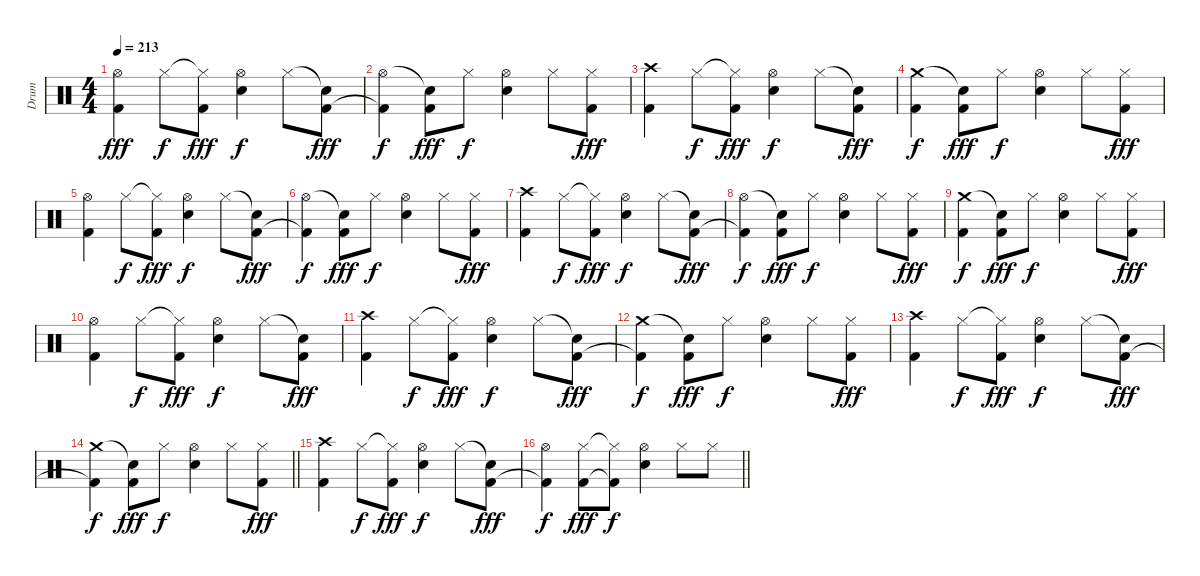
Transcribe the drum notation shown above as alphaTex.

\track ("Drum" "Drum") {instrument percussion}
\staff {score}
\articulation defaults
\ts (4 4)
\tempo 213
\clef neutral
\ks c
("Hi-Hat (open)" "Kick (hit) 2").4{dy fff} "Hi-Hat (closed)".8{dy f} ("Hi-Hat (closed)"{t} "Kick (hit) 2").8{dy fff} ("Hi-Hat (open)" "Snare (hit) 2").4{dy f} "Hi-Hat (closed)".8 ("Snare (hit)"{t} "Kick (hit) 2").8{dy fff} |
("Hi-Hat (open)" "Kick (hit) 2"{t}).4{dy f} ("Snare (hit)"{t} "Kick (hit) 2").8{dy fff} "Hi-Hat (closed)".8{dy f} ("Hi-Hat (open)" "Snare (hit) 2").4 "Hi-Hat (closed)".8 ("Hi-Hat (closed)" "Kick (hit) 2").8{dy fff} |
("Crash high (hit)" "Kick (hit) 2").4 "Hi-Hat (closed)".8{dy f} ("Hi-Hat (closed)"{t} "Kick (hit) 2").8{dy fff} ("Hi-Hat (open)" "Snare (hit) 2").4{dy f} "Hi-Hat (closed)".8 ("Snare (hit)"{t} "Kick (hit) 2").8{dy fff} |
("Crash medium (hit)" "Kick (hit) 2").4{dy f} ("Snare (hit)"{t} "Kick (hit) 2").8{dy fff} "Hi-Hat (closed)".8{dy f} ("Hi-Hat (open)" "Snare (hit) 2").4 "Hi-Hat (closed)".8 ("Hi-Hat (closed)" "Kick (hit) 2").8{dy fff} |
("Hi-Hat (open)" "Kick (hit) 2").4 "Hi-Hat (closed)".8{dy f} ("Hi-Hat (closed)"{t} "Kick (hit) 2").8{dy fff} ("Hi-Hat (open)" "Snare (hit) 2").4{dy f} "Hi-Hat (closed)".8 ("Snare (hit)"{t} "Kick (hit) 2").8{dy fff} |
("Hi-Hat (open)" "Kick (hit) 2"{t}).4{dy f} ("Snare (hit)"{t} "Kick (hit) 2").8{dy fff} "Hi-Hat (closed)".8{dy f} ("Hi-Hat (open)" "Snare (hit) 2").4 "Hi-Hat (closed)".8 ("Hi-Hat (closed)" "Kick (hit) 2").8{dy fff} |
("Crash high (hit)" "Kick (hit) 2").4 "Hi-Hat (closed)".8{dy f} ("Hi-Hat (closed)"{t} "Kick (hit) 2").8{dy fff} ("Hi-Hat (open)" "Snare (hit) 2").4{dy f} "Hi-Hat (closed)".8 ("Snare (hit)"{t} "Kick (hit) 2").8{dy fff} |
("Hi-Hat (open)" "Kick (hit) 2"{t}).4{dy f} ("Snare (hit)"{t} "Kick (hit) 2").8{dy fff} "Hi-Hat (closed)".8{dy f} ("Hi-Hat (open)" "Snare (hit) 2").4 "Hi-Hat (closed)".8 ("Hi-Hat (closed)" "Kick (hit) 2").8{dy fff} |
("Crash medium (hit)" "Kick (hit) 2").4{dy f} ("Snare (hit)"{t} "Kick (hit) 2").8{dy fff} "Hi-Hat (closed)".8{dy f} ("Hi-Hat (open)" "Snare (hit) 2").4 "Hi-Hat (closed)".8 ("Hi-Hat (closed)" "Kick (hit) 2").8{dy fff} |
("Hi-Hat (open)" "Kick (hit) 2").4 "Hi-Hat (closed)".8{dy f} ("Hi-Hat (closed)"{t} "Kick (hit) 2").8{dy fff} ("Hi-Hat (open)" "Snare (hit) 2").4{dy f} "Hi-Hat (closed)".8 ("Snare (hit)"{t} "Kick (hit) 2").8{dy fff} |
("Crash high (hit)" "Kick (hit) 2").4 "Hi-Hat (closed)".8{dy f} ("Hi-Hat (closed)"{t} "Kick (hit) 2").8{dy fff} ("Hi-Hat (open)" "Snare (hit) 2").4{dy f} "Hi-Hat (closed)".8 ("Snare (hit)"{t} "Kick (hit) 2").8{dy fff} |
("Crash medium (hit)" "Kick (hit) 2"{t}).4{dy f} ("Snare (hit)"{t} "Kick (hit) 2").8{dy fff} "Hi-Hat (closed)".8{dy f} ("Hi-Hat (open)" "Snare (hit) 2").4 "Hi-Hat (closed)".8 ("Hi-Hat (closed)" "Kick (hit) 2").8{dy fff} |
("Crash high (hit)" "Kick (hit) 2").4 "Hi-Hat (closed)".8{dy f} ("Hi-Hat (closed)"{t} "Kick (hit) 2").8{dy fff} ("Hi-Hat (open)" "Snare (hit) 2").4{dy f} "Hi-Hat (closed)".8 ("Snare (hit)"{t} "Kick (hit) 2").8{dy fff} |
\barLineRight lightlight
("Crash medium (hit)" "Kick (hit) 2"{t}).4{dy f} ("Snare (hit)"{t} "Kick (hit) 2").8{dy fff} "Hi-Hat (closed)".8{dy f} ("Hi-Hat (open)" "Snare (hit) 2").4 "Hi-Hat (closed)".8 ("Hi-Hat (closed)" "Kick (hit) 2").8{dy fff} |
\section ("" "")
("Crash high (hit)" "Kick (hit) 2").4 "Hi-Hat (closed)".8{dy f} ("Hi-Hat (closed)"{t} "Kick (hit) 2").8{dy fff} ("Hi-Hat (open)" "Snare (hit) 2").4{dy f} "Hi-Hat (closed)".8 ("Snare (hit)"{t} "Kick (hit) 2").8{dy fff} |
\barLineRight lightlight
("Hi-Hat (open)" "Kick (hit) 2"{t}).4{dy f} ("Hi-Hat (closed)" "Kick (hit) 2").8{dy fff} ("Hi-Hat (closed)"{t} "Kick (hit) 2"{t}).8{dy f} ("Hi-Hat (open)" "Snare (hit) 2").4 "Hi-Hat (closed)".8 "Hi-Hat (closed)".8
